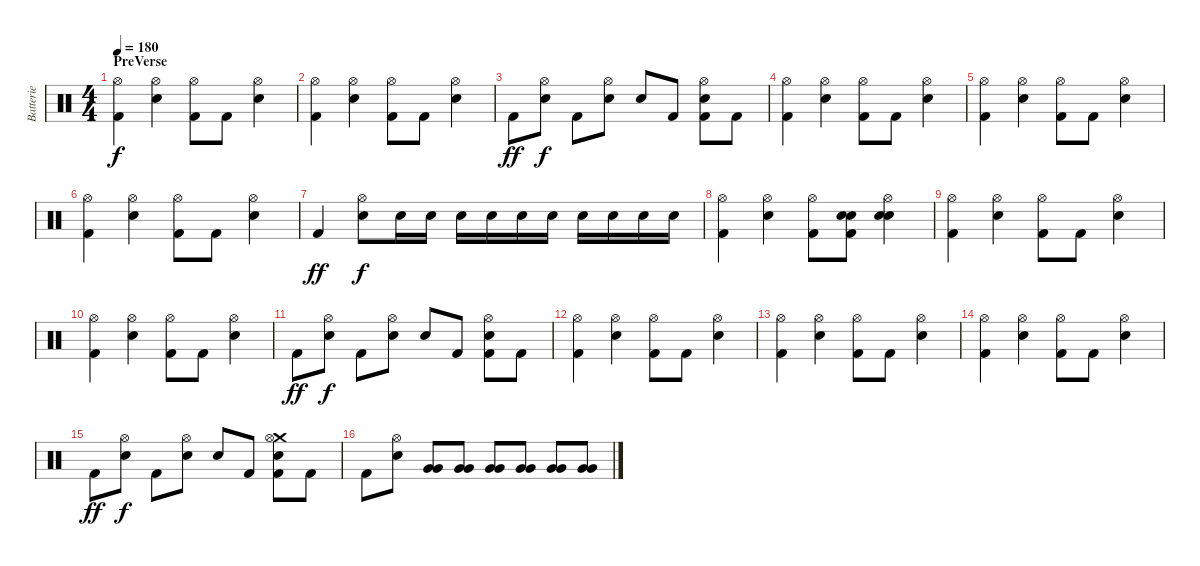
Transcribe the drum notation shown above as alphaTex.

\track ("Batterie" "Batterie") {instrument percussion}
\staff {score}
\articulation defaults
\ts (4 4)
\section ("" "PreVerse")
\tempo 180
\clef neutral
\ks c
("Hi-Hat (open)" "Kick (hit) 2").4{dy f} ("Hi-Hat (open)" "Electric Snare (hit)").4 ("Hi-Hat (open)" "Kick (hit) 2").8 "Kick (hit) 2".8 ("Hi-Hat (open)" "Electric Snare (hit)").4 |
("Hi-Hat (open)" "Kick (hit) 2").4 ("Hi-Hat (open)" "Electric Snare (hit)").4 ("Hi-Hat (open)" "Kick (hit) 2").8 "Kick (hit) 2".8 ("Hi-Hat (open)" "Electric Snare (hit)").4 |
"Kick (hit) 2".8{dy ff} ("Hi-Hat (open)" "Electric Snare (hit)").8{dy f} "Kick (hit) 2".8 ("Hi-Hat (open)" "Electric Snare (hit)").8 "Electric Snare (hit)".8 "Kick (hit) 2".8 ("Hi-Hat (open)" "Electric Snare (hit)" "Kick (hit) 2").8 "Kick (hit) 2".8 |
("Hi-Hat (open)" "Kick (hit) 2").4 ("Hi-Hat (open)" "Electric Snare (hit)").4 ("Hi-Hat (open)" "Kick (hit) 2").8 "Kick (hit) 2".8 ("Hi-Hat (open)" "Electric Snare (hit)").4 |
("Hi-Hat (open)" "Kick (hit) 2").4 ("Hi-Hat (open)" "Electric Snare (hit)").4 ("Hi-Hat (open)" "Kick (hit) 2").8 "Kick (hit) 2".8 ("Hi-Hat (open)" "Electric Snare (hit)").4 |
("Hi-Hat (open)" "Kick (hit) 2").4 ("Hi-Hat (open)" "Electric Snare (hit)").4 ("Hi-Hat (open)" "Kick (hit) 2").8 "Kick (hit) 2".8 ("Hi-Hat (open)" "Electric Snare (hit)").4 |
"Kick (hit) 2".4{dy ff} ("Hi-Hat (open)" "Electric Snare (hit)").8{dy f} "Electric Snare (hit)".16 "Electric Snare (hit)".16 "Electric Snare (hit)".16 "Electric Snare (hit)".16 "Electric Snare (hit)".16 "Electric Snare (hit)".16 "Electric Snare (hit)".16 "Electric Snare (hit)".16 "Electric Snare (hit)".16 "Electric Snare (hit)".16 |
("Hi-Hat (open)" "Kick (hit) 2").4 ("Hi-Hat (open)" "Electric Snare (hit)").4 ("Hi-Hat (open)" "Kick (hit) 2").8 ("Electric Snare (hit)" "Electric Snare (hit)" "Kick (hit) 2").8 ("Hi-Hat (open)" "Electric Snare (hit)" "Electric Snare (hit)").4 |
("Hi-Hat (open)" "Kick (hit) 2").4 ("Hi-Hat (open)" "Electric Snare (hit)").4 ("Hi-Hat (open)" "Kick (hit) 2").8 "Kick (hit) 2".8 ("Hi-Hat (open)" "Electric Snare (hit)").4 |
("Hi-Hat (open)" "Kick (hit) 2").4 ("Hi-Hat (open)" "Electric Snare (hit)").4 ("Hi-Hat (open)" "Kick (hit) 2").8 "Kick (hit) 2".8 ("Hi-Hat (open)" "Electric Snare (hit)").4 |
"Kick (hit) 2".8{dy ff} ("Hi-Hat (open)" "Electric Snare (hit)").8{dy f} "Kick (hit) 2".8 ("Hi-Hat (open)" "Electric Snare (hit)").8 "Electric Snare (hit)".8 "Kick (hit) 2".8 ("Hi-Hat (open)" "Electric Snare (hit)" "Kick (hit) 2").8 "Kick (hit) 2".8 |
("Hi-Hat (open)" "Kick (hit) 2").4 ("Hi-Hat (open)" "Electric Snare (hit)").4 ("Hi-Hat (open)" "Kick (hit) 2").8 "Kick (hit) 2".8 ("Hi-Hat (open)" "Electric Snare (hit)").4 |
("Hi-Hat (open)" "Kick (hit) 2").4 ("Hi-Hat (open)" "Electric Snare (hit)").4 ("Hi-Hat (open)" "Kick (hit) 2").8 "Kick (hit) 2".8 ("Hi-Hat (open)" "Electric Snare (hit)").4 |
("Hi-Hat (open)" "Kick (hit) 2").4 ("Hi-Hat (open)" "Electric Snare (hit)").4 ("Hi-Hat (open)" "Kick (hit) 2").8 "Kick (hit) 2".8 ("Hi-Hat (open)" "Electric Snare (hit)").4 |
"Kick (hit) 2".8{dy ff} ("Hi-Hat (open)" "Electric Snare (hit)").8{dy f} "Kick (hit) 2".8 ("Hi-Hat (open)" "Electric Snare (hit)").8 "Electric Snare (hit)".8 "Kick (hit) 2".8 ("Crash medium (hit)" "Hi-Hat (open)" "Electric Snare (hit)" "Kick (hit) 2").8 "Kick (hit) 2".8 |
"Kick (hit) 2".8 ("Hi-Hat (open)" "Electric Snare (hit)").8 ("Very Low Tom (hit)" "Very Low Tom (hit)").8 ("Very Low Tom (hit)" "Very Low Tom (hit)").8 ("Very Low Tom (hit)" "Very Low Tom (hit)").8 ("Very Low Tom (hit)" "Very Low Tom (hit)").8 ("Very Low Tom (hit)" "Very Low Tom (hit)").8 ("Very Low Tom (hit)" "Very Low Tom (hit)").8
